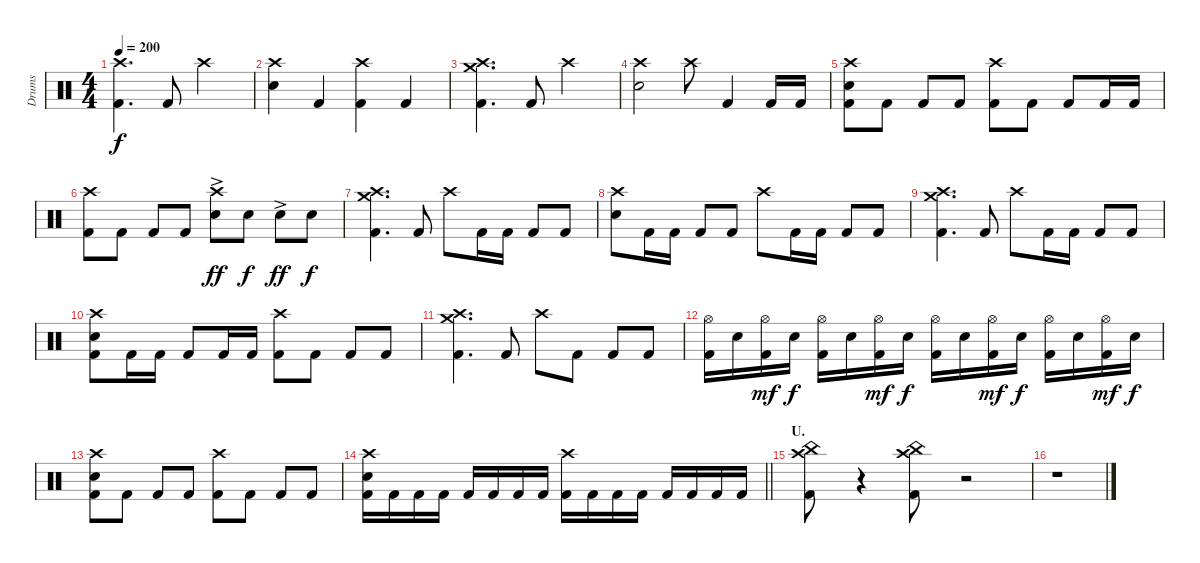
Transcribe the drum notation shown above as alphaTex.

\track ("Drums" "Drums") {instrument percussion}
\staff {score}
\articulation defaults
\ts (4 4)
\tempo 200
\clef neutral
\ks c
("Crash high (hit)" "Kick (hit) 2").4{d dy f} "Kick (hit) 2".8 "Crash high (hit)".2 |
("Crash high (hit)" "Electric Snare (hit)").4 "Kick (hit) 2".4 ("Crash high (hit)" "Kick (hit) 2").4 "Kick (hit) 2".4 |
("Crash medium (hit)" "Crash high (hit)" "Kick (hit) 2").4{d} "Kick (hit) 2".8 "Crash high (hit)".2 |
("Crash high (hit)" "Electric Snare (hit)").2 "Crash high (hit)".8 "Kick (hit) 2".4 "Kick (hit) 2".16 "Kick (hit) 2".16 |
("Crash high (hit)" "Electric Snare (hit)" "Kick (hit) 2").8 "Kick (hit) 2".8 "Kick (hit) 2".8 "Kick (hit) 2".8 ("Crash high (hit)" "Kick (hit) 2").8 "Kick (hit) 2".8 "Kick (hit) 2".8 "Kick (hit) 2".16 "Kick (hit) 2".16 |
("Crash high (hit)" "Kick (hit) 2").8 "Kick (hit) 2".8 "Kick (hit) 2".8 "Kick (hit) 2".8 ("Crash high (hit)" "Electric Snare (hit)"{ac}).8{dy ff} "Electric Snare (hit)".8{dy f} "Electric Snare (hit)"{ac}.8{dy ff} "Electric Snare (hit)".8{dy f} |
("Crash medium (hit)" "Crash high (hit)" "Kick (hit) 2").4{d} "Kick (hit) 2".8 "Crash high (hit)".8 "Kick (hit) 2".16 "Kick (hit) 2".16 "Kick (hit) 2".8 "Kick (hit) 2".8 |
("Crash high (hit)" "Electric Snare (hit)").8 "Kick (hit) 2".16 "Kick (hit) 2".16 "Kick (hit) 2".8 "Kick (hit) 2".8 "Crash high (hit)".8 "Kick (hit) 2".16 "Kick (hit) 2".16 "Kick (hit) 2".8 "Kick (hit) 2".8 |
("Crash medium (hit)" "Crash high (hit)" "Kick (hit) 2").4{d} "Kick (hit) 2".8 "Crash high (hit)".8 "Kick (hit) 2".16 "Kick (hit) 2".16 "Kick (hit) 2".8 "Kick (hit) 2".8 |
("Crash high (hit)" "Electric Snare (hit)" "Kick (hit) 2").8 "Kick (hit) 2".16 "Kick (hit) 2".16 "Kick (hit) 2".8 "Kick (hit) 2".16 "Kick (hit) 2".16 ("Crash high (hit)" "Kick (hit) 2").8 "Kick (hit) 2".8 "Kick (hit) 2".8 "Kick (hit) 2".8 |
("Crash medium (hit)" "Crash high (hit)" "Kick (hit) 2").4{d} "Kick (hit) 2".8 "Crash high (hit)".8 "Kick (hit) 2".8 "Kick (hit) 2".8 "Kick (hit) 2".8 |
("Hi-Hat (open)" "Kick (hit) 2").16 "Electric Snare (hit)".16 ("Hi-Hat (open)" "Kick (hit) 2").16{dy mf} "Electric Snare (hit)".16{dy f} ("Hi-Hat (open)" "Kick (hit) 2").16 "Electric Snare (hit)".16 ("Hi-Hat (open)" "Kick (hit) 2").16{dy mf} "Electric Snare (hit)".16{dy f} ("Hi-Hat (open)" "Kick (hit) 2").16 "Electric Snare (hit)".16 ("Hi-Hat (open)" "Kick (hit) 2").16{dy mf} "Electric Snare (hit)".16{dy f} ("Hi-Hat (open)" "Kick (hit) 2").16 "Electric Snare (hit)".16 ("Hi-Hat (open)" "Kick (hit) 2").16{dy mf} "Electric Snare (hit)".16{dy f} |
("Crash high (hit)" "Electric Snare (hit)" "Kick (hit) 2").8 "Kick (hit) 2".8 "Kick (hit) 2".8 "Kick (hit) 2".8 ("Crash high (hit)" "Kick (hit) 2").8 "Kick (hit) 2".8 "Kick (hit) 2".8 "Kick (hit) 2".8 |
\barLineRight lightlight
("Crash high (hit)" "Electric Snare (hit)" "Kick (hit) 2").16 "Kick (hit) 2".16 "Kick (hit) 2".16 "Kick (hit) 2".16 "Kick (hit) 2".16 "Kick (hit) 2".16 "Kick (hit) 2".16 "Kick (hit) 2".16 ("Crash high (hit)" "Kick (hit) 2").16 "Kick (hit) 2".16 "Kick (hit) 2".16 "Kick (hit) 2".16 "Kick (hit) 2".16 "Kick (hit) 2".16 "Kick (hit) 2".16 "Kick (hit) 2".16 |
\section ("" "U.")
("China (hit)" "Crash high (hit)" "Kick (hit) 2").8 r.4 ("China (hit)" "Crash high (hit)" "Kick (hit) 2").8 r.2 |
r.1
